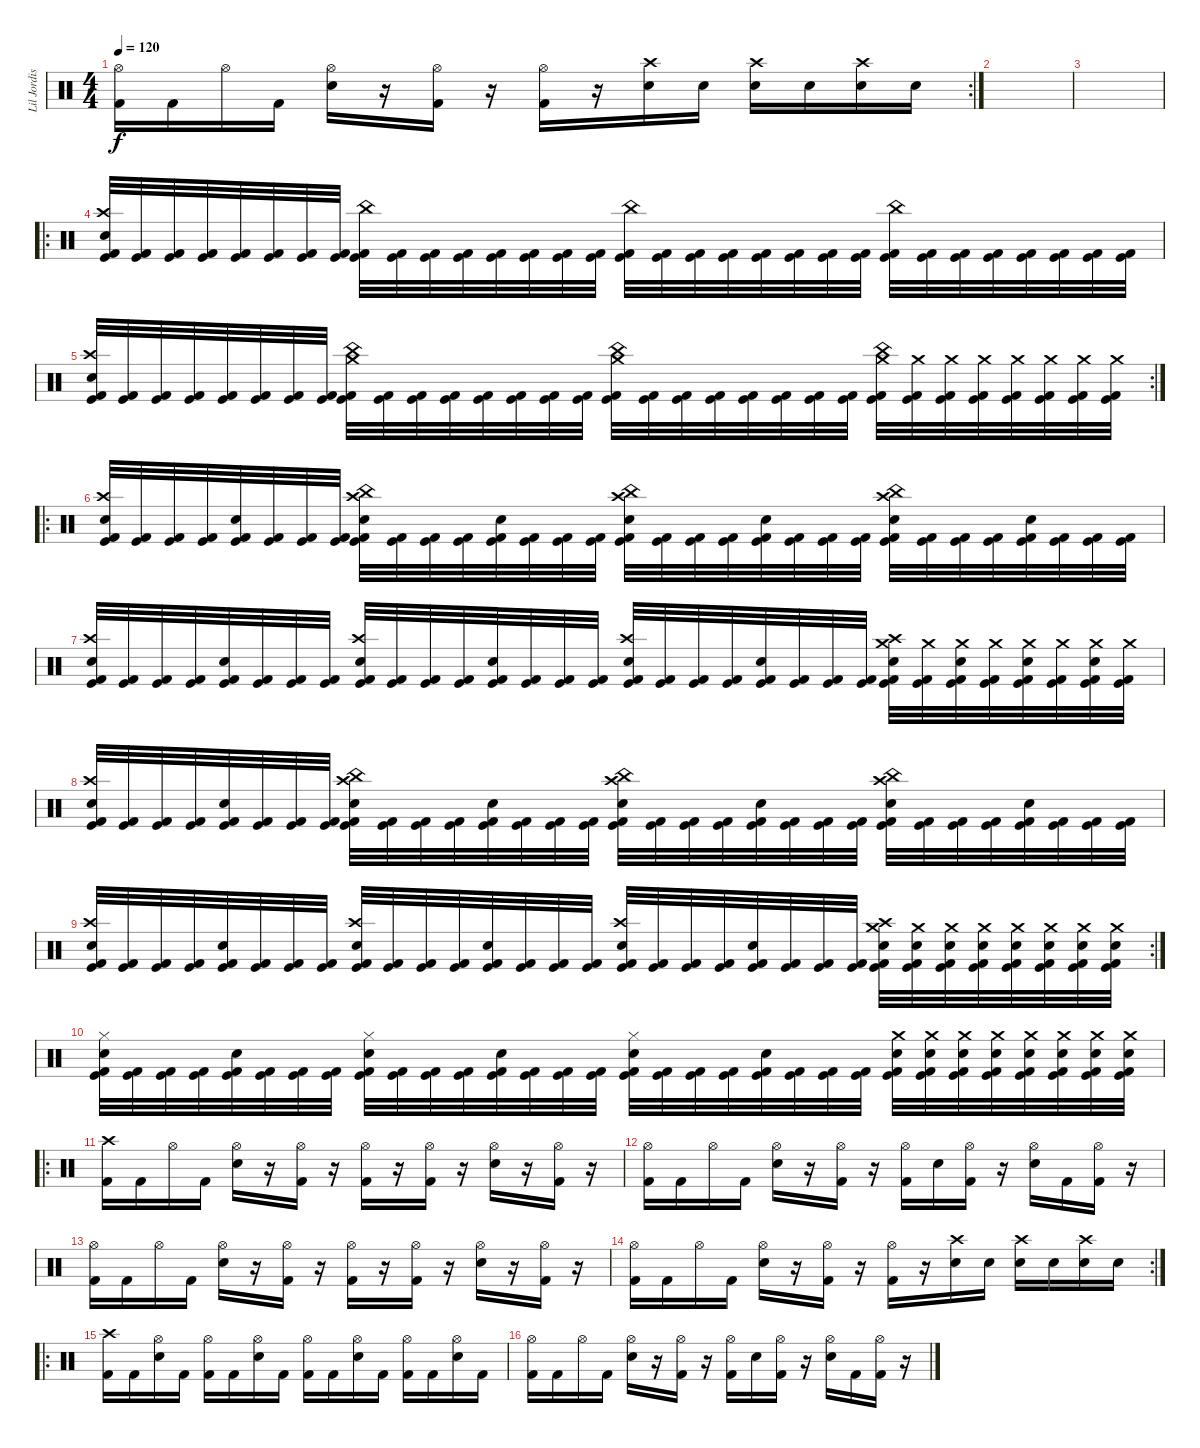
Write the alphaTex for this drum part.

\track ("Lil Jordison" "Lil Jordis") {instrument percussion}
\staff {score}
\articulation defaults
\rc 2
\ts (4 4)
\tempo 120
\clef neutral
\ks c
("Hi-Hat (open)" "Kick (hit) 2").16{dy f} "Kick (hit) 2".16 "Hi-Hat (open)".16 "Kick (hit) 2".16 ("Hi-Hat (open)" "Electric Snare (hit)").16 r.16 ("Hi-Hat (open)" "Kick (hit) 2").16 r.16 ("Hi-Hat (open)" "Kick (hit) 2").16 r.16 ("Crash high (hit)" "Electric Snare (hit)").16 "Electric Snare (hit)".16 ("Crash high (hit)" "Electric Snare (hit)").16 "Electric Snare (hit)".16 ("Crash high (hit)" "Electric Snare (hit)").16 "Electric Snare (hit)".16 |
|
|
\ro
("Crash high (hit)" "Electric Snare (hit)" "Kick (hit)" "Kick (hit) 2").32 ("Kick (hit)" "Kick (hit) 2").32 ("Kick (hit)" "Kick (hit) 2").32 ("Kick (hit)" "Kick (hit) 2").32 ("Kick (hit)" "Kick (hit) 2").32 ("Kick (hit)" "Kick (hit) 2").32 ("Kick (hit)" "Kick (hit) 2").32 ("Kick (hit)" "Kick (hit) 2").32 ("China (hit)" "Kick (hit)" "Kick (hit) 2").32 ("Kick (hit)" "Kick (hit) 2").32 ("Kick (hit)" "Kick (hit) 2").32 ("Kick (hit)" "Kick (hit) 2").32 ("Kick (hit)" "Kick (hit) 2").32 ("Kick (hit)" "Kick (hit) 2").32 ("Kick (hit)" "Kick (hit) 2").32 ("Kick (hit)" "Kick (hit) 2").32 ("China (hit)" "Kick (hit)" "Kick (hit) 2").32 ("Kick (hit)" "Kick (hit) 2").32 ("Kick (hit)" "Kick (hit) 2").32 ("Kick (hit)" "Kick (hit) 2").32 ("Kick (hit)" "Kick (hit) 2").32 ("Kick (hit)" "Kick (hit) 2").32 ("Kick (hit)" "Kick (hit) 2").32 ("Kick (hit)" "Kick (hit) 2").32 ("China (hit)" "Kick (hit)" "Kick (hit) 2").32 ("Kick (hit)" "Kick (hit) 2").32 ("Kick (hit)" "Kick (hit) 2").32 ("Kick (hit)" "Kick (hit) 2").32 ("Kick (hit)" "Kick (hit) 2").32 ("Kick (hit)" "Kick (hit) 2").32 ("Kick (hit)" "Kick (hit) 2").32 ("Kick (hit)" "Kick (hit) 2").32 |
\rc 2
("Crash high (hit)" "Electric Snare (hit)" "Kick (hit)" "Kick (hit) 2").32 ("Kick (hit)" "Kick (hit) 2").32 ("Kick (hit)" "Kick (hit) 2").32 ("Kick (hit)" "Kick (hit) 2").32 ("Kick (hit)" "Kick (hit) 2").32 ("Kick (hit)" "Kick (hit) 2").32 ("Kick (hit)" "Kick (hit) 2").32 ("Kick (hit)" "Kick (hit) 2").32 ("China (hit)" "Crash medium (hit)" "Kick (hit)" "Kick (hit) 2").32 ("Kick (hit)" "Kick (hit) 2").32 ("Kick (hit)" "Kick (hit) 2").32 ("Kick (hit)" "Kick (hit) 2").32 ("Kick (hit)" "Kick (hit) 2").32 ("Kick (hit)" "Kick (hit) 2").32 ("Kick (hit)" "Kick (hit) 2").32 ("Kick (hit)" "Kick (hit) 2").32 ("China (hit)" "Crash medium (hit)" "Kick (hit)" "Kick (hit) 2").32 ("Kick (hit)" "Kick (hit) 2").32 ("Kick (hit)" "Kick (hit) 2").32 ("Kick (hit)" "Kick (hit) 2").32 ("Kick (hit)" "Kick (hit) 2").32 ("Kick (hit)" "Kick (hit) 2").32 ("Kick (hit)" "Kick (hit) 2").32 ("Kick (hit)" "Kick (hit) 2").32 ("China (hit)" "Crash medium (hit)" "Kick (hit)" "Kick (hit) 2").32 ("Crash medium (hit)" "Kick (hit)" "Kick (hit) 2").32 ("Crash medium (hit)" "Kick (hit)" "Kick (hit) 2").32 ("Crash medium (hit)" "Kick (hit)" "Kick (hit) 2").32 ("Crash medium (hit)" "Kick (hit)" "Kick (hit) 2").32 ("Crash medium (hit)" "Kick (hit)" "Kick (hit) 2").32 ("Crash medium (hit)" "Kick (hit)" "Kick (hit) 2").32 ("Crash medium (hit)" "Kick (hit)" "Kick (hit) 2").32 |
\ro
("Crash high (hit)" "Electric Snare (hit)" "Kick (hit)" "Kick (hit) 2").32 ("Kick (hit)" "Kick (hit) 2").32 ("Kick (hit)" "Kick (hit) 2").32 ("Kick (hit)" "Kick (hit) 2").32 ("Electric Snare (hit)" "Kick (hit)" "Kick (hit) 2").32 ("Kick (hit)" "Kick (hit) 2").32 ("Kick (hit)" "Kick (hit) 2").32 ("Kick (hit)" "Kick (hit) 2").32 ("China (hit)" "Crash high (hit)" "Electric Snare (hit)" "Kick (hit)" "Kick (hit) 2").32 ("Kick (hit)" "Kick (hit) 2").32 ("Kick (hit)" "Kick (hit) 2").32 ("Kick (hit)" "Kick (hit) 2").32 ("Electric Snare (hit)" "Kick (hit)" "Kick (hit) 2").32 ("Kick (hit)" "Kick (hit) 2").32 ("Kick (hit)" "Kick (hit) 2").32 ("Kick (hit)" "Kick (hit) 2").32 ("China (hit)" "Crash high (hit)" "Electric Snare (hit)" "Kick (hit)" "Kick (hit) 2").32 ("Kick (hit)" "Kick (hit) 2").32 ("Kick (hit)" "Kick (hit) 2").32 ("Kick (hit)" "Kick (hit) 2").32 ("Electric Snare (hit)" "Kick (hit)" "Kick (hit) 2").32 ("Kick (hit)" "Kick (hit) 2").32 ("Kick (hit)" "Kick (hit) 2").32 ("Kick (hit)" "Kick (hit) 2").32 ("China (hit)" "Crash high (hit)" "Electric Snare (hit)" "Kick (hit)" "Kick (hit) 2").32 ("Kick (hit)" "Kick (hit) 2").32 ("Kick (hit)" "Kick (hit) 2").32 ("Kick (hit)" "Kick (hit) 2").32 ("Electric Snare (hit)" "Kick (hit)" "Kick (hit) 2").32 ("Kick (hit)" "Kick (hit) 2").32 ("Kick (hit)" "Kick (hit) 2").32 ("Kick (hit)" "Kick (hit) 2").32 |
("Crash high (hit)" "Electric Snare (hit)" "Kick (hit)" "Kick (hit) 2").32 ("Kick (hit)" "Kick (hit) 2").32 ("Kick (hit)" "Kick (hit) 2").32 ("Kick (hit)" "Kick (hit) 2").32 ("Electric Snare (hit)" "Kick (hit)" "Kick (hit) 2").32 ("Kick (hit)" "Kick (hit) 2").32 ("Kick (hit)" "Kick (hit) 2").32 ("Kick (hit)" "Kick (hit) 2").32 ("Crash high (hit)" "Electric Snare (hit)" "Kick (hit)" "Kick (hit) 2").32 ("Kick (hit)" "Kick (hit) 2").32 ("Kick (hit)" "Kick (hit) 2").32 ("Kick (hit)" "Kick (hit) 2").32 ("Electric Snare (hit)" "Kick (hit)" "Kick (hit) 2").32 ("Kick (hit)" "Kick (hit) 2").32 ("Kick (hit)" "Kick (hit) 2").32 ("Kick (hit)" "Kick (hit) 2").32 ("Crash high (hit)" "Electric Snare (hit)" "Kick (hit)" "Kick (hit) 2").32 ("Kick (hit)" "Kick (hit) 2").32 ("Kick (hit)" "Kick (hit) 2").32 ("Kick (hit)" "Kick (hit) 2").32 ("Electric Snare (hit)" "Kick (hit)" "Kick (hit) 2").32 ("Kick (hit)" "Kick (hit) 2").32 ("Kick (hit)" "Kick (hit) 2").32 ("Kick (hit)" "Kick (hit) 2").32 ("Crash high (hit)" "Electric Snare (hit)" "Crash medium (hit)" "Kick (hit)" "Kick (hit) 2").32 ("Crash medium (hit)" "Kick (hit)" "Kick (hit) 2").32 ("Electric Snare (hit)" "Crash medium (hit)" "Kick (hit)" "Kick (hit) 2").32 ("Crash medium (hit)" "Kick (hit)" "Kick (hit) 2").32 ("Electric Snare (hit)" "Crash medium (hit)" "Kick (hit)" "Kick (hit) 2").32 ("Crash medium (hit)" "Kick (hit)" "Kick (hit) 2").32 ("Electric Snare (hit)" "Crash medium (hit)" "Kick (hit)" "Kick (hit) 2").32 ("Crash medium (hit)" "Kick (hit)" "Kick (hit) 2").32 |
("Crash high (hit)" "Electric Snare (hit)" "Kick (hit)" "Kick (hit) 2").32 ("Kick (hit)" "Kick (hit) 2").32 ("Kick (hit)" "Kick (hit) 2").32 ("Kick (hit)" "Kick (hit) 2").32 ("Electric Snare (hit)" "Kick (hit)" "Kick (hit) 2").32 ("Kick (hit)" "Kick (hit) 2").32 ("Kick (hit)" "Kick (hit) 2").32 ("Kick (hit)" "Kick (hit) 2").32 ("China (hit)" "Crash high (hit)" "Electric Snare (hit)" "Kick (hit)" "Kick (hit) 2").32 ("Kick (hit)" "Kick (hit) 2").32 ("Kick (hit)" "Kick (hit) 2").32 ("Kick (hit)" "Kick (hit) 2").32 ("Electric Snare (hit)" "Kick (hit)" "Kick (hit) 2").32 ("Kick (hit)" "Kick (hit) 2").32 ("Kick (hit)" "Kick (hit) 2").32 ("Kick (hit)" "Kick (hit) 2").32 ("China (hit)" "Crash high (hit)" "Electric Snare (hit)" "Kick (hit)" "Kick (hit) 2").32 ("Kick (hit)" "Kick (hit) 2").32 ("Kick (hit)" "Kick (hit) 2").32 ("Kick (hit)" "Kick (hit) 2").32 ("Electric Snare (hit)" "Kick (hit)" "Kick (hit) 2").32 ("Kick (hit)" "Kick (hit) 2").32 ("Kick (hit)" "Kick (hit) 2").32 ("Kick (hit)" "Kick (hit) 2").32 ("China (hit)" "Crash high (hit)" "Electric Snare (hit)" "Kick (hit)" "Kick (hit) 2").32 ("Kick (hit)" "Kick (hit) 2").32 ("Kick (hit)" "Kick (hit) 2").32 ("Kick (hit)" "Kick (hit) 2").32 ("Electric Snare (hit)" "Kick (hit)" "Kick (hit) 2").32 ("Kick (hit)" "Kick (hit) 2").32 ("Kick (hit)" "Kick (hit) 2").32 ("Kick (hit)" "Kick (hit) 2").32 |
\rc 2
("Crash high (hit)" "Electric Snare (hit)" "Kick (hit)" "Kick (hit) 2").32 ("Kick (hit)" "Kick (hit) 2").32 ("Kick (hit)" "Kick (hit) 2").32 ("Kick (hit)" "Kick (hit) 2").32 ("Electric Snare (hit)" "Kick (hit)" "Kick (hit) 2").32 ("Kick (hit)" "Kick (hit) 2").32 ("Kick (hit)" "Kick (hit) 2").32 ("Kick (hit)" "Kick (hit) 2").32 ("Crash high (hit)" "Electric Snare (hit)" "Kick (hit)" "Kick (hit) 2").32 ("Kick (hit)" "Kick (hit) 2").32 ("Kick (hit)" "Kick (hit) 2").32 ("Kick (hit)" "Kick (hit) 2").32 ("Electric Snare (hit)" "Kick (hit)" "Kick (hit) 2").32 ("Kick (hit)" "Kick (hit) 2").32 ("Kick (hit)" "Kick (hit) 2").32 ("Kick (hit)" "Kick (hit) 2").32 ("Crash high (hit)" "Electric Snare (hit)" "Kick (hit)" "Kick (hit) 2").32 ("Kick (hit)" "Kick (hit) 2").32 ("Kick (hit)" "Kick (hit) 2").32 ("Kick (hit)" "Kick (hit) 2").32 ("Electric Snare (hit)" "Kick (hit)" "Kick (hit) 2").32 ("Kick (hit)" "Kick (hit) 2").32 ("Kick (hit)" "Kick (hit) 2").32 ("Kick (hit)" "Kick (hit) 2").32 ("Crash high (hit)" "Electric Snare (hit)" "Crash medium (hit)" "Kick (hit)" "Kick (hit) 2").32 ("Electric Snare (hit)" "Crash medium (hit)" "Kick (hit)" "Kick (hit) 2").32 ("Electric Snare (hit)" "Crash medium (hit)" "Kick (hit)" "Kick (hit) 2").32 ("Electric Snare (hit)" "Crash medium (hit)" "Kick (hit)" "Kick (hit) 2").32 ("Electric Snare (hit)" "Crash medium (hit)" "Kick (hit)" "Kick (hit) 2").32 ("Electric Snare (hit)" "Crash medium (hit)" "Kick (hit)" "Kick (hit) 2").32 ("Electric Snare (hit)" "Crash medium (hit)" "Kick (hit)" "Kick (hit) 2").32 ("Electric Snare (hit)" "Crash medium (hit)" "Kick (hit)" "Kick (hit) 2").32 |
("Hi-Hat (closed)" "Electric Snare (hit)" "Kick (hit)" "Kick (hit) 2").32 ("Kick (hit)" "Kick (hit) 2").32 ("Kick (hit)" "Kick (hit) 2").32 ("Kick (hit)" "Kick (hit) 2").32 ("Electric Snare (hit)" "Kick (hit)" "Kick (hit) 2").32 ("Kick (hit)" "Kick (hit) 2").32 ("Kick (hit)" "Kick (hit) 2").32 ("Kick (hit)" "Kick (hit) 2").32 ("Hi-Hat (closed)" "Electric Snare (hit)" "Kick (hit)" "Kick (hit) 2").32 ("Kick (hit)" "Kick (hit) 2").32 ("Kick (hit)" "Kick (hit) 2").32 ("Kick (hit)" "Kick (hit) 2").32 ("Electric Snare (hit)" "Kick (hit)" "Kick (hit) 2").32 ("Kick (hit)" "Kick (hit) 2").32 ("Kick (hit)" "Kick (hit) 2").32 ("Kick (hit)" "Kick (hit) 2").32 ("Hi-Hat (closed)" "Electric Snare (hit)" "Kick (hit)" "Kick (hit) 2").32 ("Kick (hit)" "Kick (hit) 2").32 ("Kick (hit)" "Kick (hit) 2").32 ("Kick (hit)" "Kick (hit) 2").32 ("Electric Snare (hit)" "Kick (hit)" "Kick (hit) 2").32 ("Kick (hit)" "Kick (hit) 2").32 ("Kick (hit)" "Kick (hit) 2").32 ("Kick (hit)" "Kick (hit) 2").32 ("Electric Snare (hit)" "Crash medium (hit)" "Kick (hit)" "Kick (hit) 2").32 ("Electric Snare (hit)" "Crash medium (hit)" "Kick (hit)" "Kick (hit) 2").32 ("Electric Snare (hit)" "Crash medium (hit)" "Kick (hit)" "Kick (hit) 2").32 ("Electric Snare (hit)" "Crash medium (hit)" "Kick (hit)" "Kick (hit) 2").32 ("Electric Snare (hit)" "Crash medium (hit)" "Kick (hit)" "Kick (hit) 2").32 ("Electric Snare (hit)" "Crash medium (hit)" "Kick (hit)" "Kick (hit) 2").32 ("Electric Snare (hit)" "Crash medium (hit)" "Kick (hit)" "Kick (hit) 2").32 ("Electric Snare (hit)" "Crash medium (hit)" "Kick (hit)" "Kick (hit) 2").32 |
\ro
("Crash high (hit)" "Kick (hit) 2").16 "Kick (hit) 2".16 "Hi-Hat (open)".16 "Kick (hit) 2".16 ("Hi-Hat (open)" "Electric Snare (hit)").16 r.16 ("Hi-Hat (open)" "Kick (hit) 2").16 r.16 ("Hi-Hat (open)" "Kick (hit) 2").16 r.16 ("Hi-Hat (open)" "Kick (hit) 2").16 r.16 ("Hi-Hat (open)" "Electric Snare (hit)").16 r.16 ("Hi-Hat (open)" "Kick (hit) 2").16 r.16 |
("Hi-Hat (open)" "Kick (hit) 2").16 "Kick (hit) 2".16 "Hi-Hat (open)".16 "Kick (hit) 2".16 ("Hi-Hat (open)" "Electric Snare (hit)").16 r.16 ("Hi-Hat (open)" "Kick (hit) 2").16 r.16 ("Hi-Hat (open)" "Kick (hit) 2").16 "Electric Snare (hit)".16 ("Hi-Hat (open)" "Kick (hit) 2").16 r.16 ("Hi-Hat (open)" "Electric Snare (hit)").16 "Kick (hit) 2".16 ("Hi-Hat (open)" "Kick (hit) 2").16 r.16 |
("Hi-Hat (open)" "Kick (hit) 2").16 "Kick (hit) 2".16 "Hi-Hat (open)".16 "Kick (hit) 2".16 ("Hi-Hat (open)" "Electric Snare (hit)").16 r.16 ("Hi-Hat (open)" "Kick (hit) 2").16 r.16 ("Hi-Hat (open)" "Kick (hit) 2").16 r.16 ("Hi-Hat (open)" "Kick (hit) 2").16 r.16 ("Hi-Hat (open)" "Electric Snare (hit)").16 r.16 ("Hi-Hat (open)" "Kick (hit) 2").16 r.16 |
\rc 2
("Hi-Hat (open)" "Kick (hit) 2").16 "Kick (hit) 2".16 "Hi-Hat (open)".16 "Kick (hit) 2".16 ("Hi-Hat (open)" "Electric Snare (hit)").16 r.16 ("Hi-Hat (open)" "Kick (hit) 2").16 r.16 ("Hi-Hat (open)" "Kick (hit) 2").16 r.16 ("Crash high (hit)" "Electric Snare (hit)").16 "Electric Snare (hit)".16 ("Crash high (hit)" "Electric Snare (hit)").16 "Electric Snare (hit)".16 ("Crash high (hit)" "Electric Snare (hit)").16 "Electric Snare (hit)".16 |
\ro
("Crash high (hit)" "Kick (hit) 2").16 "Kick (hit) 2".16 ("Hi-Hat (open)" "Electric Snare (hit)").16 "Kick (hit) 2".16 ("Hi-Hat (open)" "Kick (hit) 2").16 "Kick (hit) 2".16 ("Hi-Hat (open)" "Electric Snare (hit)").16 "Kick (hit) 2".16 ("Hi-Hat (open)" "Kick (hit) 2").16 "Kick (hit) 2".16 ("Hi-Hat (open)" "Electric Snare (hit)").16 "Kick (hit) 2".16 ("Hi-Hat (open)" "Kick (hit) 2").16 "Kick (hit) 2".16 ("Hi-Hat (open)" "Electric Snare (hit)").16 "Kick (hit) 2".16 |
("Hi-Hat (open)" "Kick (hit) 2").16 "Kick (hit) 2".16 "Hi-Hat (open)".16 "Kick (hit) 2".16 ("Hi-Hat (open)" "Electric Snare (hit)").16 r.16 ("Hi-Hat (open)" "Kick (hit) 2").16 r.16 ("Hi-Hat (open)" "Kick (hit) 2").16 "Electric Snare (hit)".16 ("Hi-Hat (open)" "Kick (hit) 2").16 r.16 ("Hi-Hat (open)" "Electric Snare (hit)").16 "Kick (hit) 2".16 ("Hi-Hat (open)" "Kick (hit) 2").16 r.16
